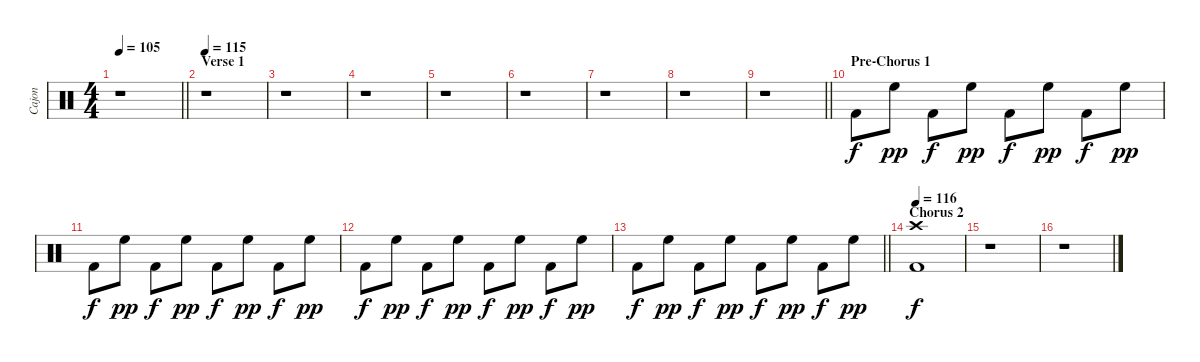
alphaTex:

\track ("Cajon" "Cajon") {instrument percussion}
\staff {score}
\articulation defaults
\ts (4 4)
\tempo 105
\clef neutral
\barLineRight lightlight
\ks c
r.1{dy f} |
\section ("" "Verse 1")
\tempo 115
r.1 |
r.1 |
r.1 |
r.1 |
r.1 |
r.1 |
r.1 |
\barLineRight lightlight
r.1 |
\section ("" "Pre-Chorus 1")
"Kick (hit) 2".8 "High Floor Tom (hit)".8{dy pp} "Kick (hit) 2".8{dy f} "High Floor Tom (hit)".8{dy pp} "Kick (hit) 2".8{dy f} "High Floor Tom (hit)".8{dy pp} "Kick (hit) 2".8{dy f} "High Floor Tom (hit)".8{dy pp} |
"Kick (hit) 2".8{dy f} "High Floor Tom (hit)".8{dy pp} "Kick (hit) 2".8{dy f} "High Floor Tom (hit)".8{dy pp} "Kick (hit) 2".8{dy f} "High Floor Tom (hit)".8{dy pp} "Kick (hit) 2".8{dy f} "High Floor Tom (hit)".8{dy pp} |
"Kick (hit) 2".8{dy f} "High Floor Tom (hit)".8{dy pp} "Kick (hit) 2".8{dy f} "High Floor Tom (hit)".8{dy pp} "Kick (hit) 2".8{dy f} "High Floor Tom (hit)".8{dy pp} "Kick (hit) 2".8{dy f} "High Floor Tom (hit)".8{dy pp} |
\barLineRight lightlight "Kick (hit) 2".8{dy f} "High Floor Tom (hit)".8{dy pp} "Kick (hit) 2".8{dy f} "High Floor Tom (hit)".8{dy pp} "Kick (hit) 2".8{dy f} "High Floor Tom (hit)".8{dy pp} "Kick (hit) 2".8{dy f} "High Floor Tom (hit)".8{dy pp}
|
\section ("" "Chorus 2")
\tempo 116
("Crash high (hit)" "Kick (hit) 2").1{dy f} |
r.1 |
r.1
